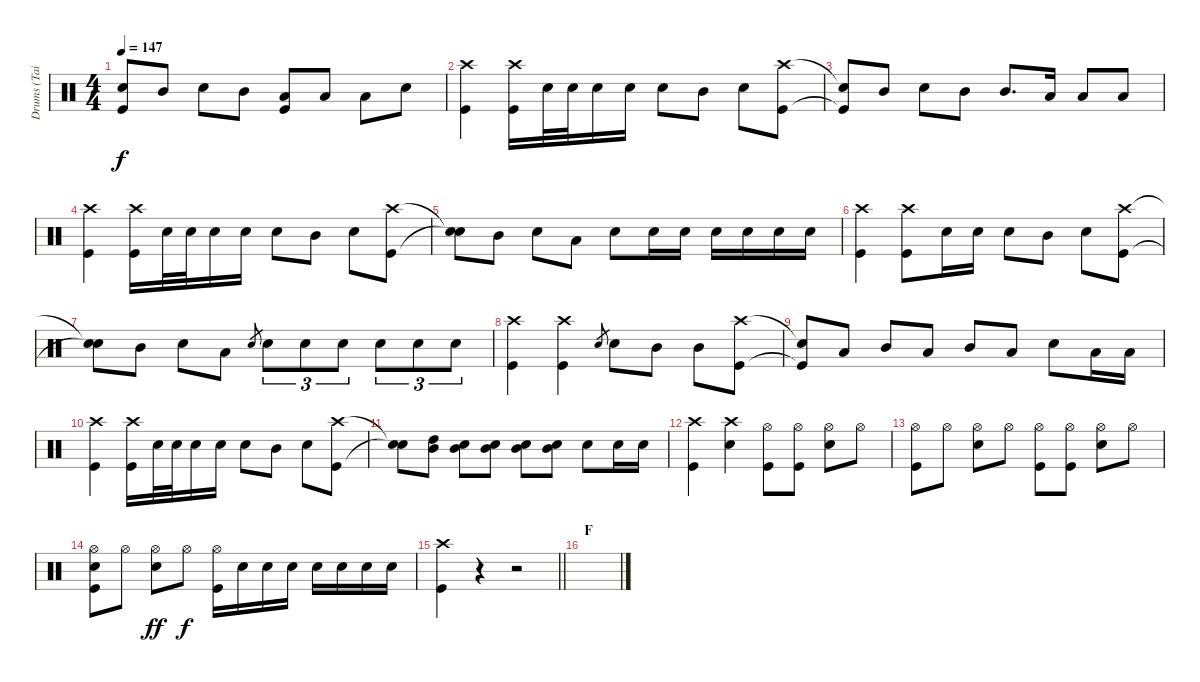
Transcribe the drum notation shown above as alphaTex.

\track ("Drums (Tainaka Ritsu)" "Drums (Tai") {instrument percussion}
\staff {score}
\articulation defaults
\ts (4 4)
\tempo 147
\clef neutral
\ks c
("Snare (hit)"{t} "Kick (hit)"{t}).8{dy f} "Mid Tom (hit)".8 "Snare (hit) 2".8 "Mid Tom (hit)".8 ("Low Tom (hit)" "Kick (hit)").8 "Low Tom (hit)".8 "Low Tom (hit)".8 "Snare (hit) 2".8 |
("Crash high (hit)" "Kick (hit)").4 ("Crash high (hit)" "Kick (hit)").16 "Snare (hit) 2".32 "Snare (hit) 2".32 "Snare (hit) 2".16 "Snare (hit) 2".16 "Snare (hit) 2".8 "Mid Tom (hit)".8 "Snare (hit) 2".8 ("Crash high (hit)" "Kick (hit)").8 |
("Snare (hit)"{t} "Kick (hit)"{t}).8 "Mid Tom (hit)".8 "Snare (hit) 2".8 "Mid Tom (hit)".8 "Mid Tom (hit)".8{d} "Low Tom (hit)".16 "Low Tom (hit)".8 "Low Tom (hit)".8 |
("Crash high (hit)" "Kick (hit)").4 ("Crash high (hit)" "Kick (hit)").16 "Snare (hit) 2".32 "Snare (hit) 2".32 "Snare (hit) 2".16 "Snare (hit) 2".16 "Snare (hit) 2".8 "Mid Tom (hit)".8 "Snare (hit) 2".8 ("Crash high (hit)" "Kick (hit)").8 |
("Snare (hit)"{t} "Snare (hit)"{t}).8 "Mid Tom (hit)".8 "Snare (hit) 2".8 "Low Tom (hit)".8 "Snare (hit) 2".8 "Snare (hit) 2".16 "Snare (hit) 2".16 "Snare (hit) 2".16 "Snare (hit) 2".16 "Snare (hit) 2".16 "Snare (hit) 2".16 |
("Crash high (hit)" "Kick (hit)").4 ("Crash high (hit)" "Kick (hit)").8 "Snare (hit) 2".16 "Snare (hit) 2".16 "Snare (hit) 2".8 "Mid Tom (hit)".8 "Snare (hit) 2".8 ("Crash high (hit)" "Kick (hit)").8 |
("Snare (hit)"{t} "Snare (hit)"{t}).8 "Mid Tom (hit)".8 "Snare (hit) 2".8 "Low Tom (hit)".8 "Snare (hit) 2".8{gr} "Snare (hit) 2".8{tu (3 2)} "Snare (hit) 2".8{tu (3 2)} "Snare (hit) 2".8{tu (3 2)} "Snare (hit) 2".8{tu (3 2)} "Snare (hit) 2".8{tu (3 2)} "Snare (hit) 2".8{tu (3 2)} |
("Crash high (hit)" "Kick (hit)").4 ("Crash high (hit)" "Kick (hit)").4 "Snare (hit) 2".8{gr} "Snare (hit) 2".8 "Mid Tom (hit)".8 "Mid Tom (hit)".8 ("Crash high (hit)" "Kick (hit)").8 |
("Snare (hit)"{t} "Kick (hit)"{t}).8 "Low Tom (hit)".8 "Mid Tom (hit)".8 "Low Tom (hit)".8 "Mid Tom (hit)".8 "Low Tom (hit)".8 "Snare (hit) 2".8 "Low Tom (hit)".16 "Low Tom (hit)".16 |
("Crash high (hit)" "Kick (hit)").4 ("Crash high (hit)" "Kick (hit)").16 "Snare (hit) 2".32 "Snare (hit) 2".32 "Snare (hit) 2".16 "Snare (hit) 2".16 "Snare (hit) 2".8 "Mid Tom (hit)".8 "Snare (hit) 2".8 ("Crash high (hit)" "Kick (hit)").8 |
("Snare (hit)"{t} "Snare (hit)"{t}).8 ("Mid Tom (hit)" "High Tom (hit)").8 ("Mid Tom (hit)" "Snare (hit) 2").8 ("Mid Tom (hit)" "Snare (hit) 2").8 ("Mid Tom (hit)" "Snare (hit) 2").8 ("Mid Tom (hit)" "Snare (hit) 2").8 "Snare (hit) 2".8 "Snare (hit) 2".16 "Snare (hit) 2".16 |
("Crash high (hit)" "Kick (hit)").4 ("Crash high (hit)" "Snare (hit) 2").4 ("Hi-Hat (open)" "Kick (hit)").8 ("Hi-Hat (open)" "Kick (hit)").8 ("Hi-Hat (open)" "Snare (hit) 2").8 "Hi-Hat (open)".8 |
("Hi-Hat (open)" "Kick (hit)").8 "Hi-Hat (open)".8 ("Hi-Hat (open)" "Snare (hit) 2").8 "Hi-Hat (open)".8 ("Hi-Hat (open)" "Kick (hit)").8 ("Hi-Hat (open)" "Kick (hit)").8 ("Hi-Hat (open)" "Snare (hit) 2").8 "Hi-Hat (open)".8 |
("Hi-Hat (open)" "Snare (hit) 2" "Kick (hit)").8 "Hi-Hat (open)".8 ("Hi-Hat (open)" "Snare (hit) 2").8{dy ff} "Hi-Hat (open)".8{dy f} ("Hi-Hat (open)" "Kick (hit)").16 "Snare (hit) 2".16 "Snare (hit) 2".16 "Snare (hit) 2".16 "Snare (hit) 2".16 "Snare (hit) 2".16 "Snare (hit) 2".16 "Snare (hit) 2".16 |
\barLineRight lightlight
("Crash high (hit)" "Kick (hit)").4 r.4 r.2 |
\section ("" "F")
